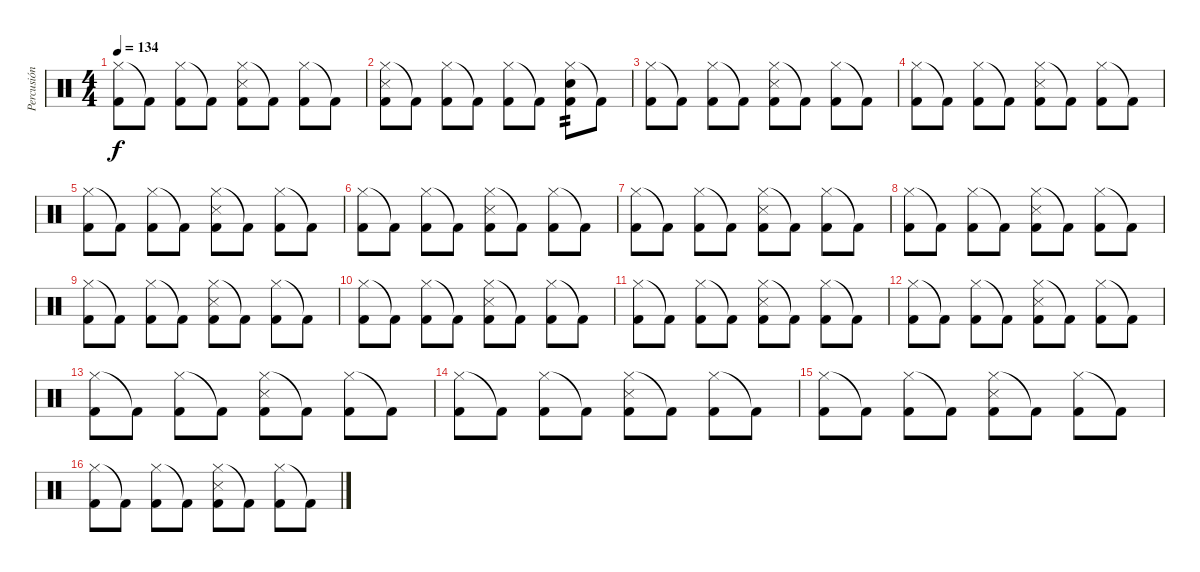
\track ("Percusión" "Percusión") {instrument percussion}
\staff {score}
\articulation defaults
\ts (4 4)
\tempo 134
\clef neutral
\ks c
("Hi-Hat (closed)" "Kick (hit) 2").8{dy f} "Kick (hit) 2"{t}.8 ("Hi-Hat (closed)" "Kick (hit) 2").8 "Kick (hit) 2"{t}.8 ("Hi-Hat (closed)" "Snare (side stick) 3" "Kick (hit) 2").8 "Kick (hit) 2"{t}.8 ("Hi-Hat (closed)" "Kick (hit) 2").8 "Kick (hit) 2"{t}.8 |
("Hi-Hat (closed)" "Snare (side stick) 3" "Kick (hit) 2").8 "Kick (hit) 2"{t}.8 ("Hi-Hat (closed)" "Kick (hit) 2").8 "Kick (hit) 2"{t}.8 ("Hi-Hat (closed)" "Kick (hit) 2").8 "Kick (hit) 2"{t}.8 ("Hi-Hat (closed)" "Electric Snare (hit)" "Kick (hit) 2").8{tp 2} "Kick (hit) 2"{t}.8 |
("Hi-Hat (closed)" "Kick (hit) 2").8 "Kick (hit) 2"{t}.8 ("Hi-Hat (closed)" "Kick (hit) 2").8 "Kick (hit) 2"{t}.8 ("Hi-Hat (closed)" "Snare (side stick) 3" "Kick (hit) 2").8 "Kick (hit) 2"{t}.8 ("Hi-Hat (closed)" "Kick (hit) 2").8 "Kick (hit) 2"{t}.8 |
("Hi-Hat (closed)" "Kick (hit) 2").8 "Kick (hit) 2"{t}.8 ("Hi-Hat (closed)" "Kick (hit) 2").8 "Kick (hit) 2"{t}.8 ("Hi-Hat (closed)" "Snare (side stick) 3" "Kick (hit) 2").8 "Kick (hit) 2"{t}.8 ("Hi-Hat (closed)" "Kick (hit) 2").8 "Kick (hit) 2"{t}.8 |
("Hi-Hat (closed)" "Kick (hit) 2").8 "Kick (hit) 2"{t}.8 ("Hi-Hat (closed)" "Kick (hit) 2").8 "Kick (hit) 2"{t}.8 ("Hi-Hat (closed)" "Snare (side stick) 3" "Kick (hit) 2").8 "Kick (hit) 2"{t}.8 ("Hi-Hat (closed)" "Kick (hit) 2").8 "Kick (hit) 2"{t}.8 |
("Hi-Hat (closed)" "Kick (hit) 2").8 "Kick (hit) 2"{t}.8 ("Hi-Hat (closed)" "Kick (hit) 2").8 "Kick (hit) 2"{t}.8 ("Hi-Hat (closed)" "Snare (side stick) 3" "Kick (hit) 2").8 "Kick (hit) 2"{t}.8 ("Hi-Hat (closed)" "Kick (hit) 2").8 "Kick (hit) 2"{t}.8 |
("Hi-Hat (closed)" "Kick (hit) 2").8 "Kick (hit) 2"{t}.8 ("Hi-Hat (closed)" "Kick (hit) 2").8 "Kick (hit) 2"{t}.8 ("Hi-Hat (closed)" "Snare (side stick) 3" "Kick (hit) 2").8 "Kick (hit) 2"{t}.8 ("Hi-Hat (closed)" "Kick (hit) 2").8 "Kick (hit) 2"{t}.8 |
("Hi-Hat (closed)" "Kick (hit) 2").8 "Kick (hit) 2"{t}.8 ("Hi-Hat (closed)" "Kick (hit) 2").8 "Kick (hit) 2"{t}.8 ("Hi-Hat (closed)" "Snare (side stick) 3" "Kick (hit) 2").8 "Kick (hit) 2"{t}.8 ("Hi-Hat (closed)" "Kick (hit) 2").8 "Kick (hit) 2"{t}.8 |
("Hi-Hat (closed)" "Kick (hit) 2").8 "Kick (hit) 2"{t}.8 ("Hi-Hat (closed)" "Kick (hit) 2").8 "Kick (hit) 2"{t}.8 ("Hi-Hat (closed)" "Snare (side stick) 3" "Kick (hit) 2").8 "Kick (hit) 2"{t}.8 ("Hi-Hat (closed)" "Kick (hit) 2").8 "Kick (hit) 2"{t}.8 |
("Hi-Hat (closed)" "Kick (hit) 2").8 "Kick (hit) 2"{t}.8 ("Hi-Hat (closed)" "Kick (hit) 2").8 "Kick (hit) 2"{t}.8 ("Hi-Hat (closed)" "Snare (side stick) 3" "Kick (hit) 2").8 "Kick (hit) 2"{t}.8 ("Hi-Hat (closed)" "Kick (hit) 2").8 "Kick (hit) 2"{t}.8 |
("Hi-Hat (closed)" "Kick (hit) 2").8 "Kick (hit) 2"{t}.8 ("Hi-Hat (closed)" "Kick (hit) 2").8 "Kick (hit) 2"{t}.8 ("Hi-Hat (closed)" "Snare (side stick) 3" "Kick (hit) 2").8 "Kick (hit) 2"{t}.8 ("Hi-Hat (closed)" "Kick (hit) 2").8 "Kick (hit) 2"{t}.8 |
("Hi-Hat (closed)" "Kick (hit) 2").8 "Kick (hit) 2"{t}.8 ("Hi-Hat (closed)" "Kick (hit) 2").8 "Kick (hit) 2"{t}.8 ("Hi-Hat (closed)" "Snare (side stick) 3" "Kick (hit) 2").8 "Kick (hit) 2"{t}.8 ("Hi-Hat (closed)" "Kick (hit) 2").8 "Kick (hit) 2"{t}.8 |
("Hi-Hat (closed)" "Kick (hit) 2").8 "Kick (hit) 2"{t}.8 ("Hi-Hat (closed)" "Kick (hit) 2").8 "Kick (hit) 2"{t}.8 ("Hi-Hat (closed)" "Snare (side stick) 3" "Kick (hit) 2").8 "Kick (hit) 2"{t}.8 ("Hi-Hat (closed)" "Kick (hit) 2").8 "Kick (hit) 2"{t}.8 |
("Hi-Hat (closed)" "Kick (hit) 2").8 "Kick (hit) 2"{t}.8 ("Hi-Hat (closed)" "Kick (hit) 2").8 "Kick (hit) 2"{t}.8 ("Hi-Hat (closed)" "Snare (side stick) 3" "Kick (hit) 2").8 "Kick (hit) 2"{t}.8 ("Hi-Hat (closed)" "Kick (hit) 2").8 "Kick (hit) 2"{t}.8 |
("Hi-Hat (closed)" "Kick (hit) 2").8 "Kick (hit) 2"{t}.8 ("Hi-Hat (closed)" "Kick (hit) 2").8 "Kick (hit) 2"{t}.8 ("Hi-Hat (closed)" "Snare (side stick) 3" "Kick (hit) 2").8 "Kick (hit) 2"{t}.8 ("Hi-Hat (closed)" "Kick (hit) 2").8 "Kick (hit) 2"{t}.8 |
("Hi-Hat (closed)" "Kick (hit) 2").8 "Kick (hit) 2"{t}.8 ("Hi-Hat (closed)" "Kick (hit) 2").8 "Kick (hit) 2"{t}.8 ("Hi-Hat (closed)" "Snare (side stick) 3" "Kick (hit) 2").8 "Kick (hit) 2"{t}.8 ("Hi-Hat (closed)" "Kick (hit) 2").8 "Kick (hit) 2"{t}.8
